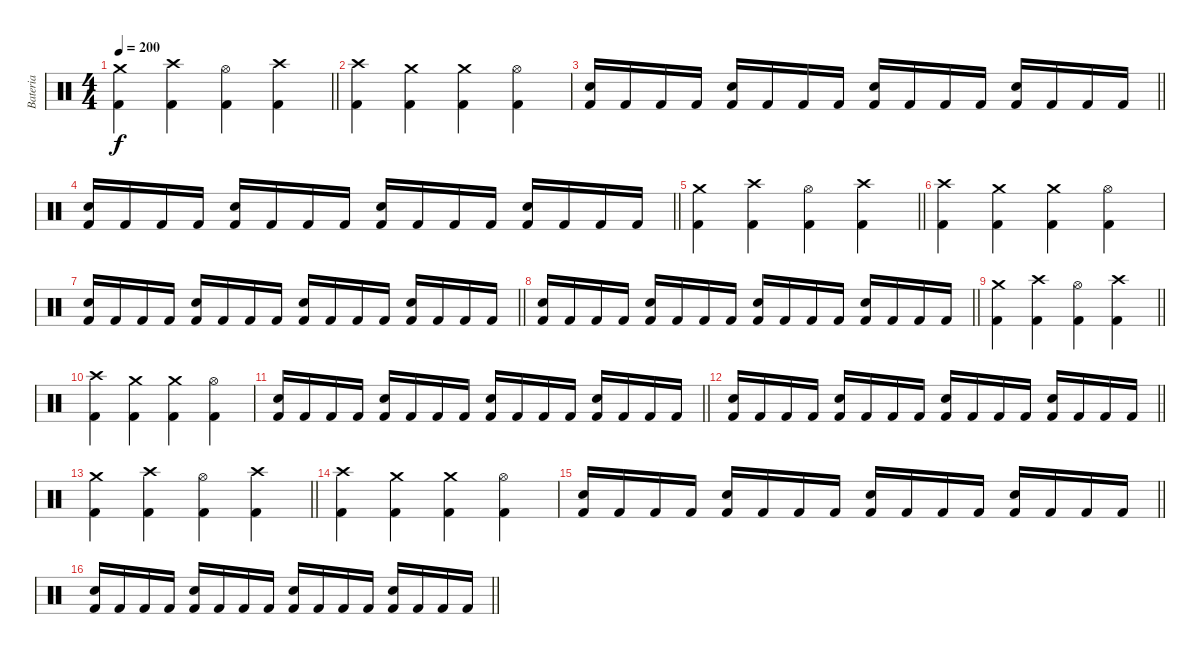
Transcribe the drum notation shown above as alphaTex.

\track ("Bateria" "Bateria") {instrument percussion}
\staff {score}
\articulation defaults
\ts (4 4)
\tempo 200
\clef neutral
\barLineRight lightlight
\ks c
("Crash medium (hit)" "Kick (hit) 2").4{dy f} ("Crash high (hit)" "Kick (hit) 2").4 ("Hi-Hat (open)" "Kick (hit) 2").4 ("Crash high (hit)" "Kick (hit) 2").4 |
("Crash high (hit)" "Kick (hit) 2").4 ("Crash medium (hit)" "Kick (hit) 2").4 ("Crash medium (hit)" "Kick (hit) 2").4 ("Hi-Hat (open)" "Kick (hit) 2").4 |
\barLineRight lightlight
("Electric Snare (hit)" "Kick (hit) 2").16 "Kick (hit) 2".16 "Kick (hit) 2".16 "Kick (hit) 2".16 ("Electric Snare (hit)" "Kick (hit) 2").16 "Kick (hit) 2".16 "Kick (hit) 2".16 "Kick (hit) 2".16 ("Electric Snare (hit)" "Kick (hit) 2").16 "Kick (hit) 2".16 "Kick (hit) 2".16 "Kick (hit) 2".16 ("Electric Snare (hit)" "Kick (hit) 2").16 "Kick (hit) 2".16 "Kick (hit) 2".16 "Kick (hit) 2".16 |
\barLineRight lightlight
("Electric Snare (hit)" "Kick (hit) 2").16 "Kick (hit) 2".16 "Kick (hit) 2".16 "Kick (hit) 2".16 ("Electric Snare (hit)" "Kick (hit) 2").16 "Kick (hit) 2".16 "Kick (hit) 2".16 "Kick (hit) 2".16 ("Electric Snare (hit)" "Kick (hit) 2").16 "Kick (hit) 2".16 "Kick (hit) 2".16 "Kick (hit) 2".16 ("Electric Snare (hit)" "Kick (hit) 2").16 "Kick (hit) 2".16 "Kick (hit) 2".16 "Kick (hit) 2".16 |
\barLineRight lightlight
("Crash medium (hit)" "Kick (hit) 2").4 ("Crash high (hit)" "Kick (hit) 2").4 ("Hi-Hat (open)" "Kick (hit) 2").4 ("Crash high (hit)" "Kick (hit) 2").4 |
("Crash high (hit)" "Kick (hit) 2").4 ("Crash medium (hit)" "Kick (hit) 2").4 ("Crash medium (hit)" "Kick (hit) 2").4 ("Hi-Hat (open)" "Kick (hit) 2").4 |
\barLineRight lightlight
("Electric Snare (hit)" "Kick (hit) 2").16 "Kick (hit) 2".16 "Kick (hit) 2".16 "Kick (hit) 2".16 ("Electric Snare (hit)" "Kick (hit) 2").16 "Kick (hit) 2".16 "Kick (hit) 2".16 "Kick (hit) 2".16 ("Electric Snare (hit)" "Kick (hit) 2").16 "Kick (hit) 2".16 "Kick (hit) 2".16 "Kick (hit) 2".16 ("Electric Snare (hit)" "Kick (hit) 2").16 "Kick (hit) 2".16 "Kick (hit) 2".16 "Kick (hit) 2".16 |
\barLineRight lightlight
("Electric Snare (hit)" "Kick (hit) 2").16 "Kick (hit) 2".16 "Kick (hit) 2".16 "Kick (hit) 2".16 ("Electric Snare (hit)" "Kick (hit) 2").16 "Kick (hit) 2".16 "Kick (hit) 2".16 "Kick (hit) 2".16 ("Electric Snare (hit)" "Kick (hit) 2").16 "Kick (hit) 2".16 "Kick (hit) 2".16 "Kick (hit) 2".16 ("Electric Snare (hit)" "Kick (hit) 2").16 "Kick (hit) 2".16 "Kick (hit) 2".16 "Kick (hit) 2".16 |
\barLineRight lightlight
("Crash medium (hit)" "Kick (hit) 2").4 ("Crash high (hit)" "Kick (hit) 2").4 ("Hi-Hat (open)" "Kick (hit) 2").4 ("Crash high (hit)" "Kick (hit) 2").4 |
("Crash high (hit)" "Kick (hit) 2").4 ("Crash medium (hit)" "Kick (hit) 2").4 ("Crash medium (hit)" "Kick (hit) 2").4 ("Hi-Hat (open)" "Kick (hit) 2").4 |
\barLineRight lightlight
("Electric Snare (hit)" "Kick (hit) 2").16 "Kick (hit) 2".16 "Kick (hit) 2".16 "Kick (hit) 2".16 ("Electric Snare (hit)" "Kick (hit) 2").16 "Kick (hit) 2".16 "Kick (hit) 2".16 "Kick (hit) 2".16 ("Electric Snare (hit)" "Kick (hit) 2").16 "Kick (hit) 2".16 "Kick (hit) 2".16 "Kick (hit) 2".16 ("Electric Snare (hit)" "Kick (hit) 2").16 "Kick (hit) 2".16 "Kick (hit) 2".16 "Kick (hit) 2".16 |
\barLineRight lightlight
("Electric Snare (hit)" "Kick (hit) 2").16 "Kick (hit) 2".16 "Kick (hit) 2".16 "Kick (hit) 2".16 ("Electric Snare (hit)" "Kick (hit) 2").16 "Kick (hit) 2".16 "Kick (hit) 2".16 "Kick (hit) 2".16 ("Electric Snare (hit)" "Kick (hit) 2").16 "Kick (hit) 2".16 "Kick (hit) 2".16 "Kick (hit) 2".16 ("Electric Snare (hit)" "Kick (hit) 2").16 "Kick (hit) 2".16 "Kick (hit) 2".16 "Kick (hit) 2".16 |
\barLineRight lightlight
("Crash medium (hit)" "Kick (hit) 2").4 ("Crash high (hit)" "Kick (hit) 2").4 ("Hi-Hat (open)" "Kick (hit) 2").4 ("Crash high (hit)" "Kick (hit) 2").4 |
("Crash high (hit)" "Kick (hit) 2").4 ("Crash medium (hit)" "Kick (hit) 2").4 ("Crash medium (hit)" "Kick (hit) 2").4 ("Hi-Hat (open)" "Kick (hit) 2").4 |
\barLineRight lightlight
("Electric Snare (hit)" "Kick (hit) 2").16 "Kick (hit) 2".16 "Kick (hit) 2".16 "Kick (hit) 2".16 ("Electric Snare (hit)" "Kick (hit) 2").16 "Kick (hit) 2".16 "Kick (hit) 2".16 "Kick (hit) 2".16 ("Electric Snare (hit)" "Kick (hit) 2").16 "Kick (hit) 2".16 "Kick (hit) 2".16 "Kick (hit) 2".16 ("Electric Snare (hit)" "Kick (hit) 2").16 "Kick (hit) 2".16 "Kick (hit) 2".16 "Kick (hit) 2".16 |
\barLineRight lightlight
("Electric Snare (hit)" "Kick (hit) 2").16 "Kick (hit) 2".16 "Kick (hit) 2".16 "Kick (hit) 2".16 ("Electric Snare (hit)" "Kick (hit) 2").16 "Kick (hit) 2".16 "Kick (hit) 2".16 "Kick (hit) 2".16 ("Electric Snare (hit)" "Kick (hit) 2").16 "Kick (hit) 2".16 "Kick (hit) 2".16 "Kick (hit) 2".16 ("Electric Snare (hit)" "Kick (hit) 2").16 "Kick (hit) 2".16 "Kick (hit) 2".16 "Kick (hit) 2".16
